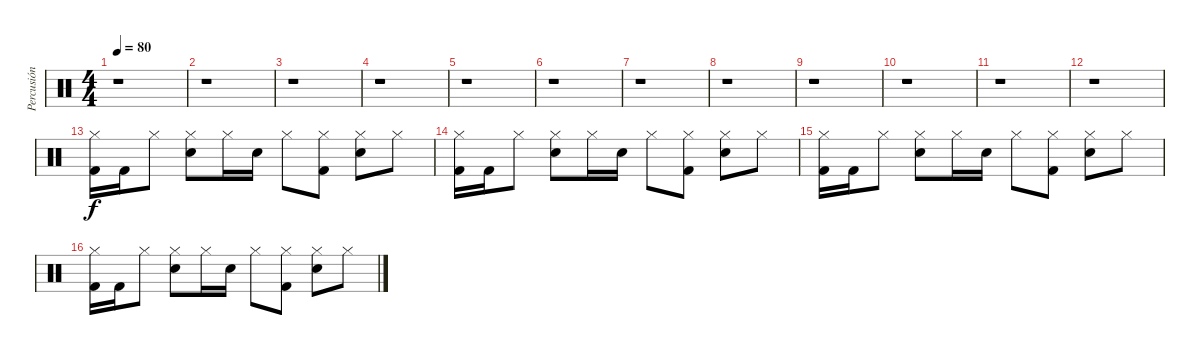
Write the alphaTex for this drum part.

\track ("Percusión" "Percusión") {instrument percussion}
\staff {score}
\articulation defaults
\ts (4 4)
\tempo 80
\clef neutral
\ks c
r.1{dy f} |
r.1 |
r.1 |
r.1 |
r.1 |
r.1 |
r.1 |
r.1 |
r.1 |
r.1 |
r.1 |
r.1 |
("Hi-Hat (closed)" "Kick (hit) 2").16 "Kick (hit) 2".16 "Hi-Hat (closed)".8 ("Hi-Hat (closed)" "Electric Snare (hit)").8 "Hi-Hat (closed)".16 "Electric Snare (hit)".16 "Hi-Hat (closed)".8 ("Hi-Hat (closed)" "Kick (hit) 2").8 ("Hi-Hat (closed)" "Electric Snare (hit)").8 "Hi-Hat (closed)".8 |
("Hi-Hat (closed)" "Kick (hit) 2").16 "Kick (hit) 2".16 "Hi-Hat (closed)".8 ("Hi-Hat (closed)" "Electric Snare (hit)").8 "Hi-Hat (closed)".16 "Electric Snare (hit)".16 "Hi-Hat (closed)".8 ("Hi-Hat (closed)" "Kick (hit) 2").8 ("Hi-Hat (closed)" "Electric Snare (hit)").8 "Hi-Hat (closed)".8 |
("Hi-Hat (closed)" "Kick (hit) 2").16 "Kick (hit) 2".16 "Hi-Hat (closed)".8 ("Hi-Hat (closed)" "Electric Snare (hit)").8 "Hi-Hat (closed)".16 "Electric Snare (hit)".16 "Hi-Hat (closed)".8 ("Hi-Hat (closed)" "Kick (hit) 2").8 ("Hi-Hat (closed)" "Electric Snare (hit)").8 "Hi-Hat (closed)".8 |
("Hi-Hat (closed)" "Kick (hit) 2").16 "Kick (hit) 2".16 "Hi-Hat (closed)".8 ("Hi-Hat (closed)" "Electric Snare (hit)").8 "Hi-Hat (closed)".16 "Electric Snare (hit)".16 "Hi-Hat (closed)".8 ("Hi-Hat (closed)" "Kick (hit) 2").8 ("Hi-Hat (closed)" "Electric Snare (hit)").8 "Hi-Hat (closed)".8
